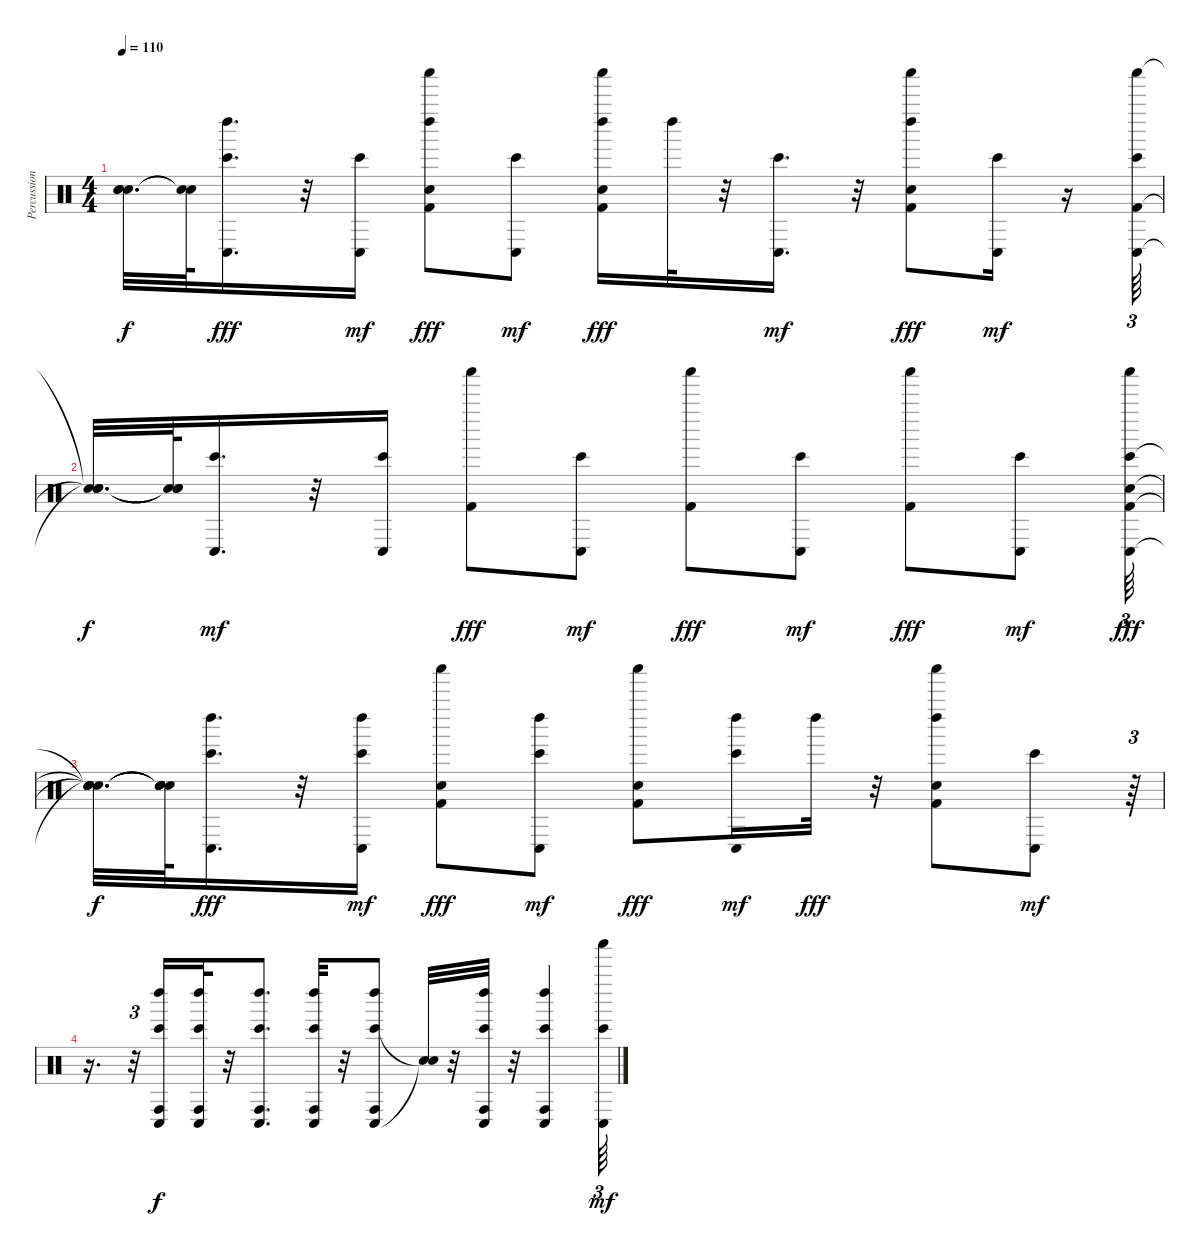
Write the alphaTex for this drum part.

\track ("Percussion" "Percussion") {instrument percussion}
\staff {score}
\articulation defaults
\ts (4 4)
\tempo 110
\clef neutral
\ks c
("Snare (hit)"{t} "Snare (hit)"{t} "Snare (hit)"{t}).32{d dy f} ("Snare (hit)"{t} "Snare (hit)"{t}).64 ("Bongo High (hit)" "Conga low (hit)" "Left Maraca (hit)").16{d dy fff} r.32 ("Bongo High (hit)" "Conga low (hit)").16{dy mf} ("Shaker (hit)" "Left Maraca (hit)" "Kick (hit) 2" "Hand Clap (hit)").8{dy fff} ("Conga low (hit)" "Bongo High (hit)").8{dy mf} ("Hand Clap (hit)" "Kick (hit) 2" "Left Maraca (hit)" "Shaker (hit)").16{dy fff} "Left Maraca (hit)".32 r.32 ("Conga low (hit)" "Bongo High (hit)").16{d dy mf} r.32 ("Kick (hit) 2" "Left Maraca (hit)" "Shaker (hit)" "Hand Clap (hit)").8{dy fff} ("Conga low (hit)" "Bongo High (hit)").16{dy mf} r.16 ("Kick (hit) 2" "Conga low (hit)" "Shaker (hit)" "Bongo High (hit)").64{tu (3 2)} |
("Snare (hit)"{t} "Snare (hit)"{t} "Snare (hit)"{t}).32{d dy f} ("Snare (hit)"{t} "Snare (hit)"{t} "Snare (hit)"{t}).64 ("Bongo High (hit)" "Conga low (hit)").16{d dy mf} r.32 ("Bongo High (hit)" "Conga low (hit)").16 ("Kick (hit) 2" "Shaker (hit)").8{dy fff} ("Bongo High (hit)" "Conga low (hit)").8{dy mf} ("Shaker (hit)" "Kick (hit) 2").8{dy fff} ("Bongo High (hit)" "Conga low (hit)").8{dy mf} ("Shaker (hit)" "Kick (hit) 2").8{dy fff} ("Conga low (hit)" "Bongo High (hit)").8{dy mf} ("Conga low (hit)" "Hand Clap (hit)" "Kick (hit) 2" "Bongo High (hit)" "Shaker (hit)").64{tu (3 2) dy fff} |
("Snare (hit)"{t} "Snare (hit)"{t} "Snare (hit)"{t} "Snare (hit)"{t}).32{d dy f} ("Snare (hit)"{t} "Snare (hit)"{t} "Snare (hit)"{t} "Snare (hit)"{t}).64 ("Bongo High (hit)" "Conga low (hit)" "Left Maraca (hit)").16{d dy fff} r.32 ("Left Maraca (hit)" "Bongo High (hit)" "Conga low (hit)").16{dy mf} ("Shaker (hit)" "Hand Clap (hit)" "Kick (hit) 2").8{dy fff} ("Left Maraca (hit)" "Bongo High (hit)" "Conga low (hit)").8{dy mf} ("Hand Clap (hit)" "Kick (hit) 2" "Shaker (hit)").8{dy fff} ("Conga low (hit)" "Left Maraca (hit)" "Bongo High (hit)").16{dy mf} "Left Maraca (hit)".32{dy fff} r.32 ("Kick (hit) 2" "Hand Clap (hit)" "Left Maraca (hit)" "Shaker (hit)").8 ("Conga low (hit)" "Bongo High (hit)").8{dy mf} r.64{tu (3 2)} |
r.16{d} r.32{tu (3 2)} ("Left Maraca (hit)" "Conga high (hit)" "Conga low (hit)" "Bongo High (hit)").16{dy f} ("Left Maraca (hit)" "Conga low (hit)" "Bongo High (hit)" "Conga high (hit)").32 r.32 ("Conga low (hit)" "Conga high (hit)" "Left Maraca (hit)" "Bongo High (hit)").8{d} ("Bongo High (hit)" "Conga high (hit)" "Left Maraca (hit)" "Conga low (hit)").32 r.32 ("Bongo High (hit)" "Conga low (hit)" "Left Maraca (hit)" "Conga high (hit)").8 ("Snare (hit)"{t} "Snare (hit)"{t}).32 r.32 ("Conga high (hit)" "Conga low (hit)" "Bongo High (hit)" "Left Maraca (hit)").32 r.32 ("Bongo High (hit)" "Conga low (hit)" "Left Maraca (hit)" "Conga high (hit)").4 ("Bongo High (hit)" "Shaker (hit)" "Conga low (hit)").64{tu (3 2) dy mf}
